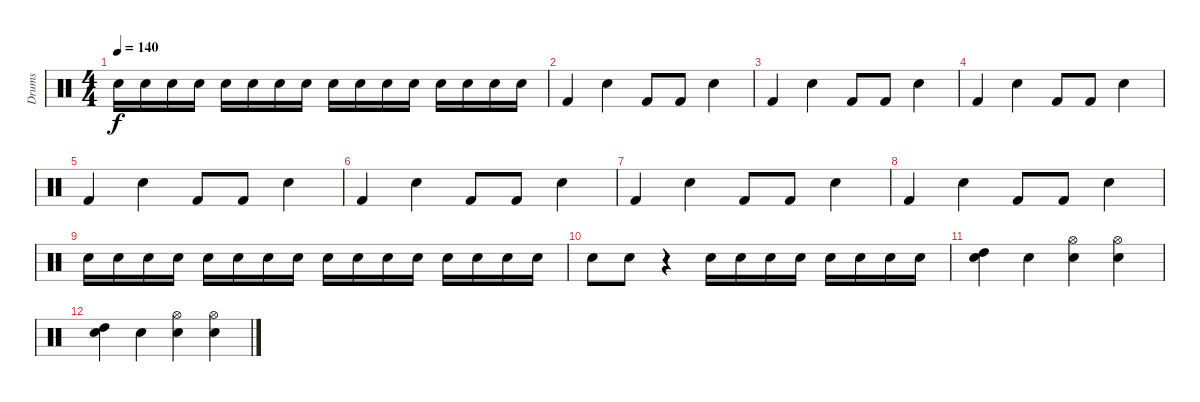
\track ("Drums" "Drums") {instrument percussion}
\staff {score}
\articulation defaults
\ts (4 4)
\tempo 140
\clef neutral
\ks c "Electric Snare (hit)".16{dy f} "Electric Snare (hit)".16 "Electric Snare (hit)".16 "Electric Snare (hit)".16 "Electric Snare (hit)".16 "Electric Snare (hit)".16 "Electric Snare (hit)".16 "Electric Snare (hit)".16 "Electric Snare (hit)".16 "Electric Snare (hit)".16 "Electric Snare (hit)".16 "Electric Snare (hit)".16 "Electric Snare (hit)".16 "Electric Snare (hit)".16 "Electric Snare (hit)".16 "Electric Snare (hit)".16
|
"Kick (hit) 2".4 "Electric Snare (hit)".4 "Kick (hit) 2".8 "Kick (hit) 2".8 "Electric Snare (hit)".4 |
"Kick (hit) 2".4 "Electric Snare (hit)".4 "Kick (hit) 2".8 "Kick (hit) 2".8 "Electric Snare (hit)".4 |
"Kick (hit) 2".4 "Electric Snare (hit)".4 "Kick (hit) 2".8 "Kick (hit) 2".8 "Electric Snare (hit)".4 |
"Kick (hit) 2".4 "Electric Snare (hit)".4 "Kick (hit) 2".8 "Kick (hit) 2".8 "Electric Snare (hit)".4 |
"Kick (hit) 2".4 "Electric Snare (hit)".4 "Kick (hit) 2".8 "Kick (hit) 2".8 "Electric Snare (hit)".4 |
"Kick (hit) 2".4 "Electric Snare (hit)".4 "Kick (hit) 2".8 "Kick (hit) 2".8 "Electric Snare (hit)".4 |
"Kick (hit) 2".4 "Electric Snare (hit)".4 "Kick (hit) 2".8 "Kick (hit) 2".8 "Electric Snare (hit)".4 |
"Electric Snare (hit)".16 "Electric Snare (hit)".16 "Electric Snare (hit)".16 "Electric Snare (hit)".16 "Electric Snare (hit)".16 "Electric Snare (hit)".16 "Electric Snare (hit)".16 "Electric Snare (hit)".16 "Electric Snare (hit)".16 "Electric Snare (hit)".16 "Electric Snare (hit)".16 "Electric Snare (hit)".16 "Electric Snare (hit)".16 "Electric Snare (hit)".16 "Electric Snare (hit)".16 "Electric Snare (hit)".16 |
"Electric Snare (hit)".8 "Electric Snare (hit)".8 r.4 "Electric Snare (hit)".16 "Electric Snare (hit)".16 "Electric Snare (hit)".16 "Electric Snare (hit)".16 "Electric Snare (hit)".16 "Electric Snare (hit)".16 "Electric Snare (hit)".16 "Electric Snare (hit)".16 |
("Electric Snare (hit)" "High Tom (hit)").4 "Electric Snare (hit)".4 ("Electric Snare (hit)" "Hi-Hat (open)").4 ("Electric Snare (hit)" "Hi-Hat (open)").4 |
("Electric Snare (hit)" "High Tom (hit)").4 "Electric Snare (hit)".4 ("Electric Snare (hit)" "Hi-Hat (open)").4 ("Electric Snare (hit)" "Hi-Hat (open)").4
